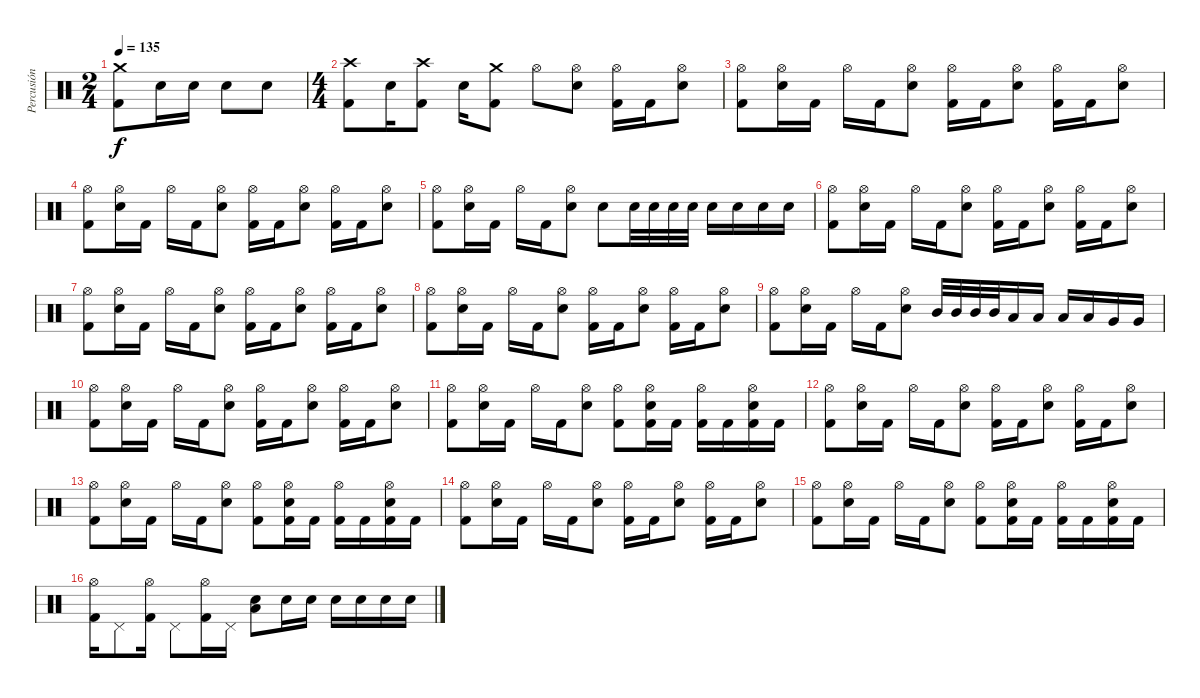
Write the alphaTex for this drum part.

\track ("Percusión" "Percusión") {instrument percussion}
\staff {score}
\articulation defaults
\ts (2 4)
\tempo 135
\clef neutral
\ks c
("Crash medium (hit)" "Kick (hit) 2").8{dy f} "Electric Snare (hit)".16 "Electric Snare (hit)".16 "Electric Snare (hit)".8 "Electric Snare (hit)".8 |
\ts (4 4)
("Crash high (hit)" "Kick (hit) 2").8 "Electric Snare (hit)".16 ("Crash high (hit)" "Kick (hit) 2").8 "Electric Snare (hit)".16 ("Crash medium (hit)" "Kick (hit) 2").8 "Hi-Hat (open)".8 ("Hi-Hat (open)" "Electric Snare (hit)").8 ("Hi-Hat (open)" "Kick (hit) 2").16 "Kick (hit) 2".16 ("Hi-Hat (open)" "Electric Snare (hit)").8 |
("Hi-Hat (open)" "Kick (hit) 2").8 ("Hi-Hat (open)" "Electric Snare (hit)").16 "Kick (hit) 2".16 "Hi-Hat (open)".16 "Kick (hit) 2".16 ("Hi-Hat (open)" "Electric Snare (hit)").8 ("Hi-Hat (open)" "Kick (hit) 2").16 "Kick (hit) 2".16 ("Hi-Hat (open)" "Electric Snare (hit)").8 ("Hi-Hat (open)" "Kick (hit) 2").16 "Kick (hit) 2".16 ("Hi-Hat (open)" "Electric Snare (hit)").8 |
("Hi-Hat (open)" "Kick (hit) 2").8 ("Hi-Hat (open)" "Electric Snare (hit)").16 "Kick (hit) 2".16 "Hi-Hat (open)".16 "Kick (hit) 2".16 ("Hi-Hat (open)" "Electric Snare (hit)").8 ("Hi-Hat (open)" "Kick (hit) 2").16 "Kick (hit) 2".16 ("Hi-Hat (open)" "Electric Snare (hit)").8 ("Hi-Hat (open)" "Kick (hit) 2").16 "Kick (hit) 2".16 ("Hi-Hat (open)" "Electric Snare (hit)").8 |
("Hi-Hat (open)" "Kick (hit) 2").8 ("Hi-Hat (open)" "Electric Snare (hit)").16 "Kick (hit) 2".16 "Hi-Hat (open)".16 "Kick (hit) 2".16 ("Hi-Hat (open)" "Electric Snare (hit)").8 "Electric Snare (hit)".8 "Electric Snare (hit)".32 "Electric Snare (hit)".32 "Electric Snare (hit)".32 "Electric Snare (hit)".32 "Electric Snare (hit)".16 "Electric Snare (hit)".16 "Electric Snare (hit)".16 "Electric Snare (hit)".16 |
("Hi-Hat (open)" "Kick (hit) 2").8 ("Hi-Hat (open)" "Electric Snare (hit)").16 "Kick (hit) 2".16 "Hi-Hat (open)".16 "Kick (hit) 2".16 ("Hi-Hat (open)" "Electric Snare (hit)").8 ("Hi-Hat (open)" "Kick (hit) 2").16 "Kick (hit) 2".16 ("Hi-Hat (open)" "Electric Snare (hit)").8 ("Hi-Hat (open)" "Kick (hit) 2").16 "Kick (hit) 2".16 ("Hi-Hat (open)" "Electric Snare (hit)").8 |
("Hi-Hat (open)" "Kick (hit) 2").8 ("Hi-Hat (open)" "Electric Snare (hit)").16 "Kick (hit) 2".16 "Hi-Hat (open)".16 "Kick (hit) 2".16 ("Hi-Hat (open)" "Electric Snare (hit)").8 ("Hi-Hat (open)" "Kick (hit) 2").16 "Kick (hit) 2".16 ("Hi-Hat (open)" "Electric Snare (hit)").8 ("Hi-Hat (open)" "Kick (hit) 2").16 "Kick (hit) 2".16 ("Hi-Hat (open)" "Electric Snare (hit)").8 |
("Hi-Hat (open)" "Kick (hit) 2").8 ("Hi-Hat (open)" "Electric Snare (hit)").16 "Kick (hit) 2".16 "Hi-Hat (open)".16 "Kick (hit) 2".16 ("Hi-Hat (open)" "Electric Snare (hit)").8 ("Hi-Hat (open)" "Kick (hit) 2").16 "Kick (hit) 2".16 ("Hi-Hat (open)" "Electric Snare (hit)").8 ("Hi-Hat (open)" "Kick (hit) 2").16 "Kick (hit) 2".16 ("Hi-Hat (open)" "Electric Snare (hit)").8 |
("Hi-Hat (open)" "Kick (hit) 2").8 ("Hi-Hat (open)" "Electric Snare (hit)").16 "Kick (hit) 2".16 "Hi-Hat (open)".16 "Kick (hit) 2".16 ("Hi-Hat (open)" "Electric Snare (hit)").8 "Mid Tom (hit)".32 "Mid Tom (hit)".32 "Mid Tom (hit)".32 "Mid Tom (hit)".32 "Low Tom (hit)".16 "Low Tom (hit)".16 "Low Tom (hit)".16 "Low Tom (hit)".16 "Very Low Tom (hit)".16 "Very Low Tom (hit)".16 |
("Hi-Hat (open)" "Kick (hit) 2").8 ("Hi-Hat (open)" "Electric Snare (hit)").16 "Kick (hit) 2".16 "Hi-Hat (open)".16 "Kick (hit) 2".16 ("Hi-Hat (open)" "Electric Snare (hit)").8 ("Hi-Hat (open)" "Kick (hit) 2").16 "Kick (hit) 2".16 ("Hi-Hat (open)" "Electric Snare (hit)").8 ("Hi-Hat (open)" "Kick (hit) 2").16 "Kick (hit) 2".16 ("Hi-Hat (open)" "Electric Snare (hit)").8 |
("Hi-Hat (open)" "Kick (hit) 2").8 ("Hi-Hat (open)" "Electric Snare (hit)").16 "Kick (hit) 2".16 "Hi-Hat (open)".16 "Kick (hit) 2".16 ("Hi-Hat (open)" "Electric Snare (hit)").8 ("Hi-Hat (open)" "Kick (hit) 2").8 ("Hi-Hat (open)" "Electric Snare (hit)" "Kick (hit) 2").16 "Kick (hit) 2".16 ("Hi-Hat (open)" "Kick (hit) 2").16 "Kick (hit) 2".16 ("Hi-Hat (open)" "Electric Snare (hit)" "Kick (hit) 2").16 "Kick (hit) 2".16 |
("Hi-Hat (open)" "Kick (hit) 2").8 ("Hi-Hat (open)" "Electric Snare (hit)").16 "Kick (hit) 2".16 "Hi-Hat (open)".16 "Kick (hit) 2".16 ("Hi-Hat (open)" "Electric Snare (hit)").8 ("Hi-Hat (open)" "Kick (hit) 2").16 "Kick (hit) 2".16 ("Hi-Hat (open)" "Electric Snare (hit)").8 ("Hi-Hat (open)" "Kick (hit) 2").16 "Kick (hit) 2".16 ("Hi-Hat (open)" "Electric Snare (hit)").8 |
("Hi-Hat (open)" "Kick (hit) 2").8 ("Hi-Hat (open)" "Electric Snare (hit)").16 "Kick (hit) 2".16 "Hi-Hat (open)".16 "Kick (hit) 2".16 ("Hi-Hat (open)" "Electric Snare (hit)").8 ("Hi-Hat (open)" "Kick (hit) 2").8 ("Hi-Hat (open)" "Electric Snare (hit)" "Kick (hit) 2").16 "Kick (hit) 2".16 ("Hi-Hat (open)" "Kick (hit) 2").16 "Kick (hit) 2".16 ("Hi-Hat (open)" "Electric Snare (hit)" "Kick (hit) 2").16 "Kick (hit) 2".16 |
("Hi-Hat (open)" "Kick (hit) 2").8 ("Hi-Hat (open)" "Electric Snare (hit)").16 "Kick (hit) 2".16 "Hi-Hat (open)".16 "Kick (hit) 2".16 ("Hi-Hat (open)" "Electric Snare (hit)").8 ("Hi-Hat (open)" "Kick (hit) 2").16 "Kick (hit) 2".16 ("Hi-Hat (open)" "Electric Snare (hit)").8 ("Hi-Hat (open)" "Kick (hit) 2").16 "Kick (hit) 2".16 ("Hi-Hat (open)" "Electric Snare (hit)").8 |
("Hi-Hat (open)" "Kick (hit) 2").8 ("Hi-Hat (open)" "Electric Snare (hit)").16 "Kick (hit) 2".16 "Hi-Hat (open)".16 "Kick (hit) 2".16 ("Hi-Hat (open)" "Electric Snare (hit)").8 ("Hi-Hat (open)" "Kick (hit) 2").8 ("Hi-Hat (open)" "Electric Snare (hit)" "Kick (hit) 2").16 "Kick (hit) 2".16 ("Hi-Hat (open)" "Kick (hit) 2").16 "Kick (hit) 2".16 ("Hi-Hat (open)" "Electric Snare (hit)" "Kick (hit) 2").16 "Kick (hit) 2".16 |
("Hi-Hat (open)" "Kick (hit) 2").16 "Pedal Hi-Hat (hit)".8 ("Hi-Hat (open)" "Kick (hit) 2").16 "Pedal Hi-Hat (hit)".8 ("Hi-Hat (open)" "Kick (hit) 2").16 "Pedal Hi-Hat (hit)".16 ("Low Tom (hit)" "Electric Snare (hit)").8 "Electric Snare (hit)".16 "Electric Snare (hit)".16 "Electric Snare (hit)".16 "Electric Snare (hit)".16 "Electric Snare (hit)".16 "Electric Snare (hit)".16
